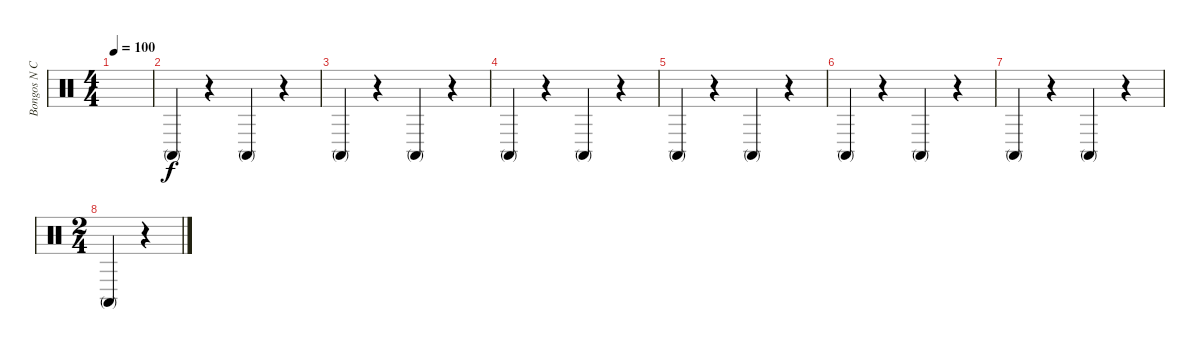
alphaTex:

\track ("Bongos N Congas" "Bongos N C") {instrument percussion}
\staff {score}
\articulation defaults
\ts (4 4)
\tempo 100
\clef neutral
\ks c
|
"Conga high (mute)".4 r.4 "Conga high (mute)".4 r.4 |
"Conga high (mute)".4 r.4 "Conga high (mute)".4 r.4 |
"Conga high (mute)".4 r.4 "Conga high (mute)".4 r.4 |
"Conga high (mute)".4 r.4 "Conga high (mute)".4 r.4 |
"Conga high (mute)".4 r.4 "Conga high (mute)".4 r.4 |
"Conga high (mute)".4 r.4 "Conga high (mute)".4 r.4 |
\ts (2 4)
"Conga high (mute)".4 r.4
